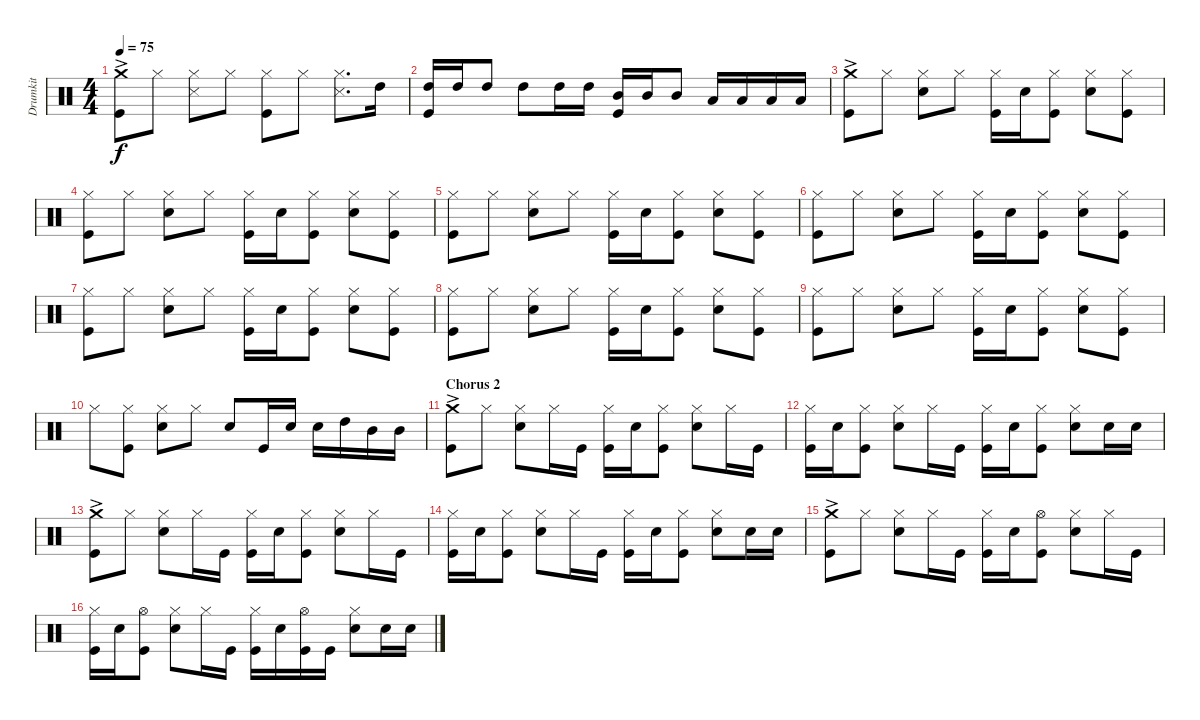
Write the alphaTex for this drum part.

\track ("Drumkit" "Drumkit") {instrument percussion}
\staff {score}
\articulation defaults
\ts (4 4)
\tempo 75
\clef neutral
\ks c
("Crash medium (hit)"{ac} "Kick (hit)").8{dy f} "Hi-Hat (closed)".8 ("Hi-Hat (closed)" "Snare (side stick) 3").8 "Hi-Hat (closed)".8 ("Hi-Hat (closed)" "Kick (hit)").8 "Hi-Hat (closed)".8 ("Hi-Hat (closed)" "Snare (side stick) 3").8{d} "High Tom (hit)".16 |
("High Tom (hit)" "Kick (hit)").16 "High Tom (hit)".16 "High Tom (hit)".8 "High Tom (hit)".8 "High Tom (hit)".16 "High Tom (hit)".16 ("Mid Tom (hit)" "Kick (hit)").16 "Mid Tom (hit)".16 "Mid Tom (hit)".8 "Low Tom (hit)".16 "Low Tom (hit)".16 "Low Tom (hit)".16 "Low Tom (hit)".16 |
("Crash medium (hit)"{ac} "Kick (hit)").8 "Hi-Hat (closed)".8 ("Hi-Hat (closed)" "Snare (hit) 2").8 "Hi-Hat (closed)".8 ("Hi-Hat (closed)" "Kick (hit)").16 "Snare (hit) 2".16 ("Hi-Hat (closed)" "Kick (hit)").8 ("Hi-Hat (closed)" "Snare (hit) 2").8 ("Hi-Hat (closed)" "Kick (hit)").8 |
("Hi-Hat (closed)" "Kick (hit)").8 "Hi-Hat (closed)".8 ("Hi-Hat (closed)" "Snare (hit) 2").8 "Hi-Hat (closed)".8 ("Hi-Hat (closed)" "Kick (hit)").16 "Snare (hit) 2".16 ("Hi-Hat (closed)" "Kick (hit)").8 ("Hi-Hat (closed)" "Snare (hit) 2").8 ("Hi-Hat (closed)" "Kick (hit)").8 |
("Hi-Hat (closed)" "Kick (hit)").8 "Hi-Hat (closed)".8 ("Hi-Hat (closed)" "Snare (hit) 2").8 "Hi-Hat (closed)".8 ("Hi-Hat (closed)" "Kick (hit)").16 "Snare (hit) 2".16 ("Hi-Hat (closed)" "Kick (hit)").8 ("Hi-Hat (closed)" "Snare (hit) 2").8 ("Hi-Hat (closed)" "Kick (hit)").8 |
("Hi-Hat (closed)" "Kick (hit)").8 "Hi-Hat (closed)".8 ("Hi-Hat (closed)" "Snare (hit) 2").8 "Hi-Hat (closed)".8 ("Hi-Hat (closed)" "Kick (hit)").16 "Snare (hit) 2".16 ("Hi-Hat (closed)" "Kick (hit)").8 ("Hi-Hat (closed)" "Snare (hit) 2").8 ("Hi-Hat (closed)" "Kick (hit)").8 |
("Hi-Hat (closed)" "Kick (hit)").8 "Hi-Hat (closed)".8 ("Hi-Hat (closed)" "Snare (hit) 2").8 "Hi-Hat (closed)".8 ("Hi-Hat (closed)" "Kick (hit)").16 "Snare (hit) 2".16 ("Hi-Hat (closed)" "Kick (hit)").8 ("Hi-Hat (closed)" "Snare (hit) 2").8 ("Hi-Hat (closed)" "Kick (hit)").8 |
("Hi-Hat (closed)" "Kick (hit)").8 "Hi-Hat (closed)".8 ("Hi-Hat (closed)" "Snare (hit) 2").8 "Hi-Hat (closed)".8 ("Hi-Hat (closed)" "Kick (hit)").16 "Snare (hit) 2".16 ("Hi-Hat (closed)" "Kick (hit)").8 ("Hi-Hat (closed)" "Snare (hit) 2").8 ("Hi-Hat (closed)" "Kick (hit)").8 |
("Hi-Hat (closed)" "Kick (hit)").8 "Hi-Hat (closed)".8 ("Hi-Hat (closed)" "Snare (hit) 2").8 "Hi-Hat (closed)".8 ("Hi-Hat (closed)" "Kick (hit)").16 "Snare (hit) 2".16 ("Hi-Hat (closed)" "Kick (hit)").8 ("Hi-Hat (closed)" "Snare (hit) 2").8 ("Hi-Hat (closed)" "Kick (hit)").8 |
"Hi-Hat (closed)".8 ("Hi-Hat (closed)" "Kick (hit)").8 ("Hi-Hat (closed)" "Snare (hit) 2").8 "Hi-Hat (closed)".8 "Snare (hit) 2".8 "Kick (hit)".16 "Snare (hit) 2".16 "Snare (hit) 2".16 "High Tom (hit)".16 "Mid Tom (hit)".16 "Mid Tom (hit)".16 |
\section ("" "Chorus 2")
("Crash medium (hit)"{ac} "Kick (hit)").8 "Hi-Hat (closed)".8 ("Hi-Hat (closed)" "Snare (hit) 2").8 "Hi-Hat (closed)".16 "Kick (hit)".16 ("Hi-Hat (closed)" "Kick (hit)").16 "Snare (hit) 2".16 ("Hi-Hat (closed)" "Kick (hit)").8 ("Hi-Hat (closed)" "Snare (hit) 2").8 "Hi-Hat (closed)".16 "Kick (hit)".16 |
("Hi-Hat (closed)" "Kick (hit)").16 "Snare (hit) 2".16 ("Hi-Hat (closed)" "Kick (hit)").8 ("Hi-Hat (closed)" "Snare (hit) 2").8 "Hi-Hat (closed)".16 "Kick (hit)".16 ("Hi-Hat (closed)" "Kick (hit)").16 "Snare (hit) 2".16 ("Hi-Hat (closed)" "Kick (hit)").8 ("Hi-Hat (closed)" "Snare (hit) 2").8 "Snare (hit) 2".16 "Snare (hit) 2".16 |
("Crash medium (hit)"{ac} "Kick (hit)").8 "Hi-Hat (closed)".8 ("Hi-Hat (closed)" "Snare (hit) 2").8 "Hi-Hat (closed)".16 "Kick (hit)".16 ("Hi-Hat (closed)" "Kick (hit)").16 "Snare (hit) 2".16 ("Hi-Hat (closed)" "Kick (hit)").8 ("Hi-Hat (closed)" "Snare (hit) 2").8 "Hi-Hat (closed)".16 "Kick (hit)".16 |
("Hi-Hat (closed)" "Kick (hit)").16 "Snare (hit) 2".16 ("Hi-Hat (closed)" "Kick (hit)").8 ("Hi-Hat (closed)" "Snare (hit) 2").8 "Hi-Hat (closed)".16 "Kick (hit)".16 ("Hi-Hat (closed)" "Kick (hit)").16 "Snare (hit) 2".16 ("Hi-Hat (closed)" "Kick (hit)").8 ("Hi-Hat (closed)" "Snare (hit) 2").8 "Snare (hit) 2".16 "Snare (hit) 2".16 |
("Crash medium (hit)"{ac} "Kick (hit)").8 "Hi-Hat (closed)".8 ("Hi-Hat (closed)" "Snare (hit) 2").8 "Hi-Hat (closed)".16 "Kick (hit)".16 ("Hi-Hat (closed)" "Kick (hit)").16 "Snare (hit) 2".16 ("Hi-Hat (open)" "Kick (hit)").8 ("Hi-Hat (closed)" "Snare (hit) 2").8 "Hi-Hat (closed)".16 "Kick (hit)".16 |
("Hi-Hat (closed)" "Kick (hit)").16 "Snare (hit) 2".16 ("Hi-Hat (open)" "Kick (hit)").8 ("Hi-Hat (closed)" "Snare (hit) 2").8 "Hi-Hat (closed)".16 "Kick (hit)".16 ("Hi-Hat (closed)" "Kick (hit)").16 "Snare (hit) 2".16 ("Hi-Hat (open)" "Kick (hit)").16 "Kick (hit)".16 ("Hi-Hat (closed)" "Snare (hit) 2").8 "Snare (hit) 2".16 "Snare (hit) 2".16
